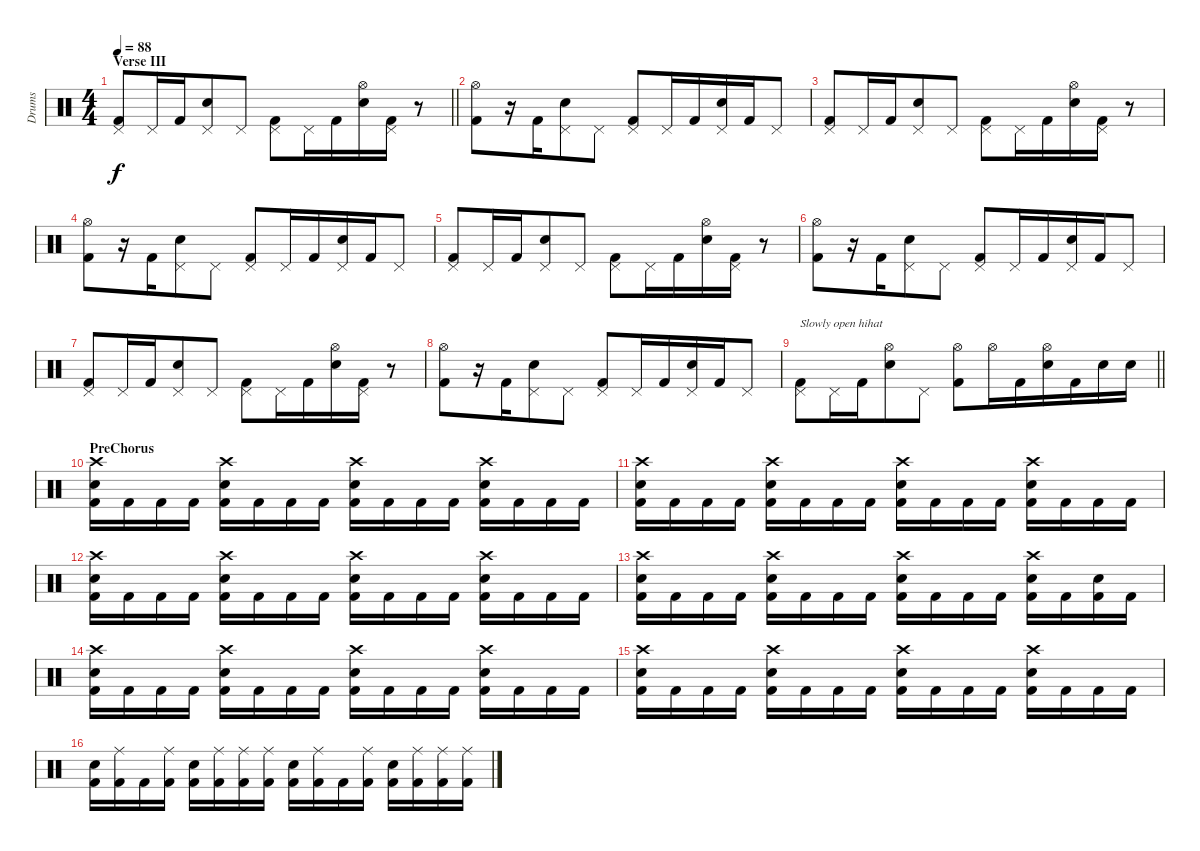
\track ("Drums" "Drums") {instrument percussion}
\staff {score}
\articulation defaults
\ts (4 4)
\section ("" "Verse III")
\tempo 88
\clef neutral
\barLineRight lightlight
\ks aminor
("Pedal Hi-Hat (hit)" "Kick (hit) 2").8{dy f} "Pedal Hi-Hat (hit)".16 "Kick (hit) 2".16{beam merge} ("Pedal Hi-Hat (hit)" "Electric Snare (hit)").8{beam merge} "Pedal Hi-Hat (hit)".8 ("Pedal Hi-Hat (hit)" "Kick (hit) 2").8{beam merge} "Pedal Hi-Hat (hit)".16 "Kick (hit) 2".16{beam merge} ("Hi-Hat (open)" "Electric Snare (hit)").16{beam merge} ("Pedal Hi-Hat (hit)" "Kick (hit) 2").16{beam merge} r.8 |
("Hi-Hat (open)" "Kick (hit) 2").8 r.16 "Kick (hit) 2".16{beam merge} ("Pedal Hi-Hat (hit)" "Electric Snare (hit)").8{beam merge} "Pedal Hi-Hat (hit)".8 ("Pedal Hi-Hat (hit)" "Kick (hit) 2").8{beam merge} "Pedal Hi-Hat (hit)".16 "Kick (hit) 2".16{beam merge} ("Pedal Hi-Hat (hit)" "Electric Snare (hit)").16{beam merge} "Kick (hit) 2".16{beam merge} "Pedal Hi-Hat (hit)".8 |
("Pedal Hi-Hat (hit)" "Kick (hit) 2").8 "Pedal Hi-Hat (hit)".16 "Kick (hit) 2".16{beam merge} ("Pedal Hi-Hat (hit)" "Electric Snare (hit)").8{beam merge} "Pedal Hi-Hat (hit)".8 ("Pedal Hi-Hat (hit)" "Kick (hit) 2").8{beam merge} "Pedal Hi-Hat (hit)".16 "Kick (hit) 2".16{beam merge} ("Hi-Hat (open)" "Electric Snare (hit)").16{beam merge} ("Pedal Hi-Hat (hit)" "Kick (hit) 2").16{beam merge} r.8 |
("Hi-Hat (open)" "Kick (hit) 2").8 r.16 "Kick (hit) 2".16{beam merge} ("Pedal Hi-Hat (hit)" "Electric Snare (hit)").8{beam merge} "Pedal Hi-Hat (hit)".8 ("Pedal Hi-Hat (hit)" "Kick (hit) 2").8{beam merge} "Pedal Hi-Hat (hit)".16 "Kick (hit) 2".16{beam merge} ("Pedal Hi-Hat (hit)" "Electric Snare (hit)").16{beam merge} "Kick (hit) 2".16{beam merge} "Pedal Hi-Hat (hit)".8 |
("Pedal Hi-Hat (hit)" "Kick (hit) 2").8 "Pedal Hi-Hat (hit)".16 "Kick (hit) 2".16{beam merge} ("Pedal Hi-Hat (hit)" "Electric Snare (hit)").8{beam merge} "Pedal Hi-Hat (hit)".8 ("Pedal Hi-Hat (hit)" "Kick (hit) 2").8{beam merge} "Pedal Hi-Hat (hit)".16 "Kick (hit) 2".16{beam merge} ("Hi-Hat (open)" "Electric Snare (hit)").16{beam merge} ("Pedal Hi-Hat (hit)" "Kick (hit) 2").16{beam merge} r.8 |
("Hi-Hat (open)" "Kick (hit) 2").8 r.16 "Kick (hit) 2".16{beam merge} ("Pedal Hi-Hat (hit)" "Electric Snare (hit)").8{beam merge} "Pedal Hi-Hat (hit)".8 ("Pedal Hi-Hat (hit)" "Kick (hit) 2").8{beam merge} "Pedal Hi-Hat (hit)".16 "Kick (hit) 2".16{beam merge} ("Pedal Hi-Hat (hit)" "Electric Snare (hit)").16{beam merge} "Kick (hit) 2".16{beam merge} "Pedal Hi-Hat (hit)".8 |
("Pedal Hi-Hat (hit)" "Kick (hit) 2").8 "Pedal Hi-Hat (hit)".16 "Kick (hit) 2".16{beam merge} ("Pedal Hi-Hat (hit)" "Electric Snare (hit)").8{beam merge} "Pedal Hi-Hat (hit)".8 ("Pedal Hi-Hat (hit)" "Kick (hit) 2").8{beam merge} "Pedal Hi-Hat (hit)".16 "Kick (hit) 2".16{beam merge} ("Hi-Hat (open)" "Electric Snare (hit)").16{beam merge} ("Pedal Hi-Hat (hit)" "Kick (hit) 2").16{beam merge} r.8 |
("Hi-Hat (open)" "Kick (hit) 2").8 r.16 "Kick (hit) 2".16{beam merge} ("Pedal Hi-Hat (hit)" "Electric Snare (hit)").8{beam merge} "Pedal Hi-Hat (hit)".8 ("Pedal Hi-Hat (hit)" "Kick (hit) 2").8{beam merge} "Pedal Hi-Hat (hit)".16 "Kick (hit) 2".16{beam merge} ("Pedal Hi-Hat (hit)" "Electric Snare (hit)").16{beam merge} "Kick (hit) 2".16{beam merge} "Pedal Hi-Hat (hit)".8 |
\barLineRight lightlight
("Pedal Hi-Hat (hit)" "Kick (hit) 2").8{txt "Slowly open hihat"} "Pedal Hi-Hat (hit)".16 "Kick (hit) 2".16{beam merge} ("Hi-Hat (open)" "Electric Snare (hit)").8{beam merge} "Pedal Hi-Hat (hit)".8 ("Hi-Hat (open)" "Kick (hit) 2").8{beam merge} "Hi-Hat (open)".16 "Kick (hit) 2".16{beam merge} ("Hi-Hat (open)" "Electric Snare (hit)").16{beam merge} "Kick (hit) 2".16{beam merge} "Electric Snare (hit)".16{beam merge} "Electric Snare (hit)".16 |
\section ("" "PreChorus")
("Crash high (hit)" "Electric Snare (hit)" "Kick (hit) 2").16 "Kick (hit) 2".16 "Kick (hit) 2".16 "Kick (hit) 2".16 ("Crash high (hit)" "Electric Snare (hit)" "Kick (hit) 2").16{beam merge} "Kick (hit) 2".16 "Kick (hit) 2".16 "Kick (hit) 2".16 ("Crash high (hit)" "Electric Snare (hit)" "Kick (hit) 2").16{beam merge} "Kick (hit) 2".16{beam merge} "Kick (hit) 2".16 "Kick (hit) 2".16 ("Crash high (hit)" "Electric Snare (hit)" "Kick (hit) 2").16{beam merge} "Kick (hit) 2".16 "Kick (hit) 2".16{beam merge} "Kick (hit) 2".16 |
("Crash high (hit)" "Electric Snare (hit)" "Kick (hit) 2").16 "Kick (hit) 2".16 "Kick (hit) 2".16 "Kick (hit) 2".16 ("Crash high (hit)" "Electric Snare (hit)" "Kick (hit) 2").16{beam merge} "Kick (hit) 2".16 "Kick (hit) 2".16 "Kick (hit) 2".16 ("Crash high (hit)" "Electric Snare (hit)" "Kick (hit) 2").16{beam merge} "Kick (hit) 2".16{beam merge} "Kick (hit) 2".16 "Kick (hit) 2".16 ("Crash high (hit)" "Electric Snare (hit)" "Kick (hit) 2").16{beam merge} "Kick (hit) 2".16 "Kick (hit) 2".16{beam merge} "Kick (hit) 2".16 |
("Crash high (hit)" "Electric Snare (hit)" "Kick (hit) 2").16 "Kick (hit) 2".16 "Kick (hit) 2".16 "Kick (hit) 2".16 ("Crash high (hit)" "Electric Snare (hit)" "Kick (hit) 2").16{beam merge} "Kick (hit) 2".16 "Kick (hit) 2".16 "Kick (hit) 2".16 ("Crash high (hit)" "Electric Snare (hit)" "Kick (hit) 2").16{beam merge} "Kick (hit) 2".16{beam merge} "Kick (hit) 2".16 "Kick (hit) 2".16 ("Crash high (hit)" "Electric Snare (hit)" "Kick (hit) 2").16{beam merge} "Kick (hit) 2".16 "Kick (hit) 2".16{beam merge} "Kick (hit) 2".16 |
("Crash high (hit)" "Electric Snare (hit)" "Kick (hit) 2").16 "Kick (hit) 2".16 "Kick (hit) 2".16 "Kick (hit) 2".16 ("Crash high (hit)" "Electric Snare (hit)" "Kick (hit) 2").16{beam merge} "Kick (hit) 2".16 "Kick (hit) 2".16 "Kick (hit) 2".16 ("Crash high (hit)" "Electric Snare (hit)" "Kick (hit) 2").16{beam merge} "Kick (hit) 2".16{beam merge} "Kick (hit) 2".16 "Kick (hit) 2".16 ("Crash high (hit)" "Electric Snare (hit)" "Kick (hit) 2").16{beam merge} "Kick (hit) 2".16 ("Electric Snare (hit)" "Kick (hit) 2").16{beam merge} "Kick (hit) 2".16 |
("Crash high (hit)" "Electric Snare (hit)" "Kick (hit) 2").16 "Kick (hit) 2".16 "Kick (hit) 2".16 "Kick (hit) 2".16 ("Crash high (hit)" "Electric Snare (hit)" "Kick (hit) 2").16{beam merge} "Kick (hit) 2".16 "Kick (hit) 2".16 "Kick (hit) 2".16 ("Crash high (hit)" "Electric Snare (hit)" "Kick (hit) 2").16{beam merge} "Kick (hit) 2".16{beam merge} "Kick (hit) 2".16 "Kick (hit) 2".16 ("Crash high (hit)" "Electric Snare (hit)" "Kick (hit) 2").16{beam merge} "Kick (hit) 2".16 "Kick (hit) 2".16{beam merge} "Kick (hit) 2".16 |
("Crash high (hit)" "Electric Snare (hit)" "Kick (hit) 2").16 "Kick (hit) 2".16 "Kick (hit) 2".16 "Kick (hit) 2".16 ("Crash high (hit)" "Electric Snare (hit)" "Kick (hit) 2").16{beam merge} "Kick (hit) 2".16 "Kick (hit) 2".16 "Kick (hit) 2".16 ("Crash high (hit)" "Electric Snare (hit)" "Kick (hit) 2").16{beam merge} "Kick (hit) 2".16{beam merge} "Kick (hit) 2".16 "Kick (hit) 2".16 ("Crash high (hit)" "Electric Snare (hit)" "Kick (hit) 2").16{beam merge} "Kick (hit) 2".16 "Kick (hit) 2".16{beam merge} "Kick (hit) 2".16 |
("Electric Snare (hit)" "Kick (hit) 2").16 ("Ride (middle)" "Kick (hit) 2").16 "Kick (hit) 2".16 ("Ride (middle)" "Kick (hit) 2").16 ("Electric Snare (hit)" "Kick (hit) 2").16{beam merge} ("Ride (middle)" "Kick (hit) 2").16 ("Ride (middle)" "Kick (hit) 2").16 ("Ride (middle)" "Kick (hit) 2").16 ("Electric Snare (hit)" "Kick (hit) 2").16{beam merge} ("Ride (middle)" "Kick (hit) 2").16{beam merge} "Kick (hit) 2".16 ("Ride (middle)" "Kick (hit) 2").16 ("Electric Snare (hit)" "Kick (hit) 2").16{beam merge} ("Ride (middle)" "Kick (hit) 2").16 ("Ride (middle)" "Kick (hit) 2").16{beam merge} ("Ride (middle)" "Kick (hit) 2").16
